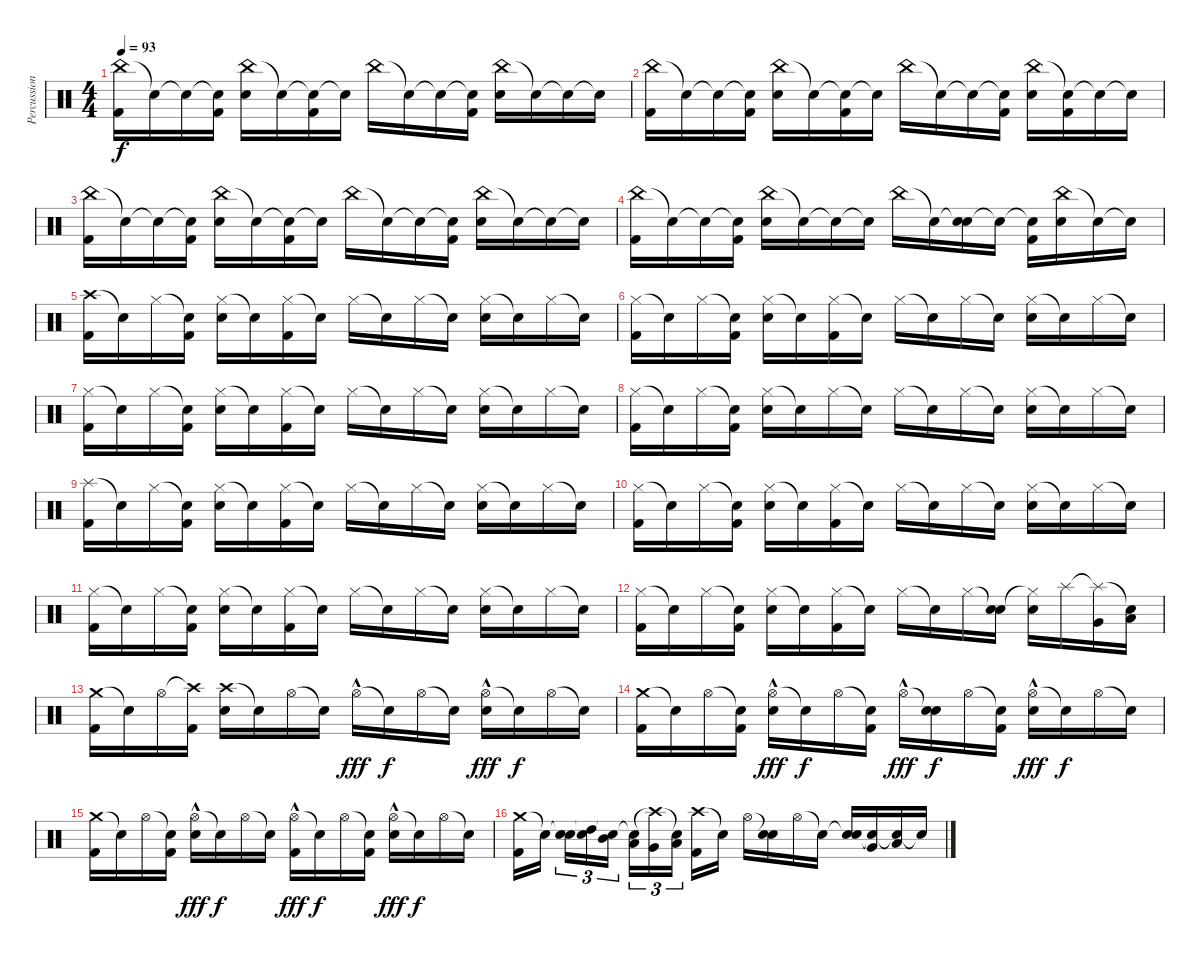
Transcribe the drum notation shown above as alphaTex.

\track ("Percussion" "Percussion") {instrument percussion}
\staff {score}
\articulation defaults
\ts (4 4)
\tempo 93
\clef neutral
\ks c
("China (hit)" "Kick (hit) 2").16{dy f} "Snare (hit)"{t}.16 "Snare (hit)"{t}.16 ("Snare (hit)"{t} "Kick (hit) 2").16 ("China (hit)" "Electric Snare (hit)").16 "Snare (hit)"{t}.16 ("Snare (hit)"{t} "Kick (hit) 2").16 "Snare (hit)"{t}.16 "China (hit)".16 "Snare (hit)"{t}.16 "Snare (hit)"{t}.16 ("Snare (hit)"{t} "Kick (hit) 2").16 ("China (hit)" "Electric Snare (hit)").16 "Snare (hit)"{t}.16 "Snare (hit)"{t}.16 "Snare (hit)"{t}.16 |
("China (hit)" "Kick (hit) 2").16 "Snare (hit)"{t}.16 "Snare (hit)"{t}.16 ("Snare (hit)"{t} "Kick (hit) 2").16 ("China (hit)" "Electric Snare (hit)").16 "Snare (hit)"{t}.16 ("Snare (hit)"{t} "Kick (hit) 2").16 "Snare (hit)"{t}.16 "China (hit)".16 "Snare (hit)"{t}.16 "Snare (hit)"{t}.16 ("Snare (hit)"{t} "Kick (hit) 2").16 ("China (hit)" "Electric Snare (hit)").16 ("Snare (hit)"{t} "Kick (hit) 2").16 "Snare (hit)"{t}.16 "Snare (hit)"{t}.16 |
("China (hit)" "Kick (hit) 2").16 "Snare (hit)"{t}.16 "Snare (hit)"{t}.16 ("Snare (hit)"{t} "Kick (hit) 2").16 ("China (hit)" "Electric Snare (hit)").16 "Snare (hit)"{t}.16 ("Snare (hit)"{t} "Kick (hit) 2").16 "Snare (hit)"{t}.16 "China (hit)".16 "Snare (hit)"{t}.16 "Snare (hit)"{t}.16 ("Snare (hit)"{t} "Kick (hit) 2").16 ("China (hit)" "Electric Snare (hit)").16 "Snare (hit)"{t}.16 "Snare (hit)"{t}.16 "Snare (hit)"{t}.16 |
("China (hit)" "Kick (hit) 2").16 "Snare (hit)"{t}.16 "Snare (hit)"{t}.16 ("Snare (hit)"{t} "Kick (hit) 2").16 ("China (hit)" "Electric Snare (hit)").16 "Snare (hit)"{t}.16 "Snare (hit)"{t}.16 "Snare (hit)"{t}.16 "China (hit)".16 "Snare (hit)"{t}.16 ("Snare (hit)"{t} "Electric Snare (hit)").16 "Snare (hit)"{t}.16 ("Snare (hit)"{t} "Kick (hit) 2").16 ("China (hit)" "Electric Snare (hit)").16 "Snare (hit)"{t}.16 "Snare (hit)"{t}.16 |
("Crash high (hit)" "Kick (hit) 2").16 "Snare (hit)"{t}.16 "Hi-Hat (closed)".16 ("Snare (hit)"{t} "Kick (hit) 2").16 ("Hi-Hat (closed)" "Electric Snare (hit)").16 "Snare (hit)"{t}.16 ("Hi-Hat (closed)" "Kick (hit) 2").16 "Snare (hit)"{t}.16 "Hi-Hat (closed)".16 "Snare (hit)"{t}.16 "Hi-Hat (closed)".16 "Snare (hit)"{t}.16 ("Hi-Hat (closed)" "Electric Snare (hit)").16 "Snare (hit)"{t}.16 "Hi-Hat (closed)".16 "Snare (hit)"{t}.16 |
("Hi-Hat (closed)" "Kick (hit) 2").16 "Snare (hit)"{t}.16 "Hi-Hat (closed)".16 ("Snare (hit)"{t} "Kick (hit) 2").16 ("Hi-Hat (closed)" "Electric Snare (hit)").16 "Snare (hit)"{t}.16 ("Hi-Hat (closed)" "Kick (hit) 2").16 "Snare (hit)"{t}.16 "Hi-Hat (closed)".16 "Snare (hit)"{t}.16 "Hi-Hat (closed)".16 "Snare (hit)"{t}.16 ("Hi-Hat (closed)" "Electric Snare (hit)").16 "Snare (hit)"{t}.16 "Hi-Hat (closed)".16 "Snare (hit)"{t}.16 |
("Hi-Hat (closed)" "Kick (hit) 2").16 "Snare (hit)"{t}.16 "Hi-Hat (closed)".16 ("Snare (hit)"{t} "Kick (hit) 2").16 ("Hi-Hat (closed)" "Electric Snare (hit)").16 "Snare (hit)"{t}.16 ("Hi-Hat (closed)" "Kick (hit) 2").16 "Snare (hit)"{t}.16 "Hi-Hat (closed)".16 "Snare (hit)"{t}.16 "Hi-Hat (closed)".16 "Snare (hit)"{t}.16 ("Hi-Hat (closed)" "Electric Snare (hit)").16 "Snare (hit)"{t}.16 "Hi-Hat (closed)".16 "Snare (hit)"{t}.16 |
("Hi-Hat (closed)" "Kick (hit) 2").16 "Snare (hit)"{t}.16 "Hi-Hat (closed)".16 ("Snare (hit)"{t} "Kick (hit) 2").16 ("Hi-Hat (closed)" "Electric Snare (hit)").16 "Snare (hit)"{t}.16 "Hi-Hat (closed)".16 "Snare (hit)"{t}.16 "Hi-Hat (closed)".16 "Snare (hit)"{t}.16 "Hi-Hat (closed)".16 "Snare (hit)"{t}.16 ("Hi-Hat (closed)" "Electric Snare (hit)").16 "Snare (hit)"{t}.16 "Hi-Hat (closed)".16 "Snare (hit)"{t}.16 |
("Splash (hit)" "Kick (hit) 2").16 "Snare (hit)"{t}.16 "Hi-Hat (closed)".16 ("Snare (hit)"{t} "Kick (hit) 2").16 ("Hi-Hat (closed)" "Electric Snare (hit)").16 "Snare (hit)"{t}.16 ("Hi-Hat (closed)" "Kick (hit) 2").16 "Snare (hit)"{t}.16 "Hi-Hat (closed)".16 "Snare (hit)"{t}.16 "Hi-Hat (closed)".16 "Snare (hit)"{t}.16 ("Hi-Hat (closed)" "Electric Snare (hit)").16 "Snare (hit)"{t}.16 "Hi-Hat (closed)".16 "Snare (hit)"{t}.16 |
("Hi-Hat (closed)" "Kick (hit) 2").16 "Snare (hit)"{t}.16 "Hi-Hat (closed)".16 ("Snare (hit)"{t} "Kick (hit) 2").16 ("Hi-Hat (closed)" "Electric Snare (hit)").16 "Snare (hit)"{t}.16 ("Hi-Hat (closed)" "Kick (hit) 2").16 "Snare (hit)"{t}.16 "Hi-Hat (closed)".16 "Snare (hit)"{t}.16 "Hi-Hat (closed)".16 "Snare (hit)"{t}.16 ("Hi-Hat (closed)" "Electric Snare (hit)").16 "Snare (hit)"{t}.16 "Hi-Hat (closed)".16 "Snare (hit)"{t}.16 |
("Hi-Hat (closed)" "Kick (hit) 2").16 "Snare (hit)"{t}.16 "Hi-Hat (closed)".16 ("Snare (hit)"{t} "Kick (hit) 2").16 ("Hi-Hat (closed)" "Electric Snare (hit)").16 "Snare (hit)"{t}.16 ("Hi-Hat (closed)" "Kick (hit) 2").16 "Snare (hit)"{t}.16 "Hi-Hat (closed)".16 "Snare (hit)"{t}.16 "Hi-Hat (closed)".16 "Snare (hit)"{t}.16 ("Hi-Hat (closed)" "Electric Snare (hit)").16 "Snare (hit)"{t}.16 "Hi-Hat (closed)".16 "Snare (hit)"{t}.16 |
("Hi-Hat (closed)" "Kick (hit) 2").16 "Snare (hit)"{t}.16 "Hi-Hat (closed)".16 ("Snare (hit)"{t} "Kick (hit) 2").16 ("Hi-Hat (closed)" "Electric Snare (hit)").16 "Snare (hit)"{t}.16 ("Hi-Hat (closed)" "Kick (hit) 2").16 "Snare (hit)"{t}.16 "Hi-Hat (closed)".16 "Snare (hit)"{t}.16 "Hi-Hat (closed)".16 ("Snare (hit)"{t} "Electric Snare (hit)").16 ("Hi-Hat (closed)"{t} "Electric Snare (hit)").16 "Splash (hit)".16 ("Splash (hit)"{t} "Very Low Tom (hit)").16 ("Snare (hit)"{t} "Low Floor Tom (hit)").16 |
("Crash medium (hit)" "Kick (hit) 2").16 "Snare (hit)"{t}.16 "Hi-Hat (open)".16 ("Crash high (hit)"{t} "Kick (hit) 2").16 ("Crash high (hit)" "Electric Snare (hit)").16 "Snare (hit)"{t}.16 "Hi-Hat (open)".16 "Snare (hit)"{t}.16 "Hi-Hat (open)"{hac}.16{dy fff} "Snare (hit)"{t}.16{dy f} "Hi-Hat (open)".16 "Snare (hit)"{t}.16 ("Hi-Hat (open)"{hac} "Electric Snare (hit)").16{dy fff} "Snare (hit)"{t}.16{dy f} "Hi-Hat (open)".16 "Snare (hit)"{t}.16 |
("Crash medium (hit)" "Kick (hit) 2").16 "Snare (hit)"{t}.16 "Hi-Hat (open)".16 ("Snare (hit)"{t} "Kick (hit) 2").16 ("Hi-Hat (open)"{hac} "Electric Snare (hit)").16{dy fff} "Snare (hit)"{t}.16{dy f} "Hi-Hat (open)".16 ("Snare (hit)"{t} "Kick (hit) 2").16 "Hi-Hat (open)"{hac}.16{dy fff} ("Snare (hit)"{t} "Electric Snare (hit)").16{dy f} "Hi-Hat (open)".16 ("Snare (hit)"{t} "Kick (hit) 2").16 ("Hi-Hat (open)"{hac} "Electric Snare (hit)").16{dy fff} "Snare (hit)"{t}.16{dy f} "Hi-Hat (open)".16 "Snare (hit)"{t}.16 |
("Crash medium (hit)" "Kick (hit) 2").16 "Snare (hit)"{t}.16 "Hi-Hat (open)".16 ("Snare (hit)"{t} "Kick (hit) 2").16 ("Hi-Hat (open)"{hac} "Electric Snare (hit)").16{dy fff} "Snare (hit)"{t}.16{dy f} "Hi-Hat (open)".16 "Snare (hit)"{t}.16 ("Hi-Hat (open)"{hac} "Kick (hit) 2").16{dy fff} "Snare (hit)"{t}.16{dy f} "Hi-Hat (open)".16 ("Snare (hit)"{t} "Kick (hit) 2").16 ("Hi-Hat (open)"{hac} "Electric Snare (hit)").16{dy fff} "Snare (hit)"{t}.16{dy f} "Hi-Hat (open)".16 "Snare (hit)"{t}.16 |
("Crash medium (hit)" "Kick (hit) 2").16 "Snare (hit)"{t}.16{beam splitsecondary} ("Snare (hit)"{t} "Electric Snare (hit)").16{tu (3 2)} ("Snare (hit)"{t} "High Tom (hit)").16{tu (3 2)} ("Snare (hit)"{t} "Mid Tom (hit)").16{tu (3 2)} ("Snare (hit)"{t} "Low Tom (hit)").16{tu (3 2)} ("Crash high (hit)"{t} "Very Low Tom (hit)").16{tu (3 2)} ("Snare (hit)"{t} "Low Floor Tom (hit)").16{tu (3 2) beam splitsecondary} ("Crash high (hit)" "Kick (hit) 2").16 "Snare (hit)"{t}.16 "Hi-Hat (open)".16 ("Snare (hit)"{t} "Electric Snare (hit)").16 "Hi-Hat (open)".16 "Snare (hit)"{t}.16 ("Snare (hit)"{t} "Electric Snare (hit)").16 ("Snare (hit)"{t} "Very Low Tom (hit)").16 ("Snare (hit)"{t} "Low Floor Tom (hit)").16 "Snare (hit)"{t}.16
